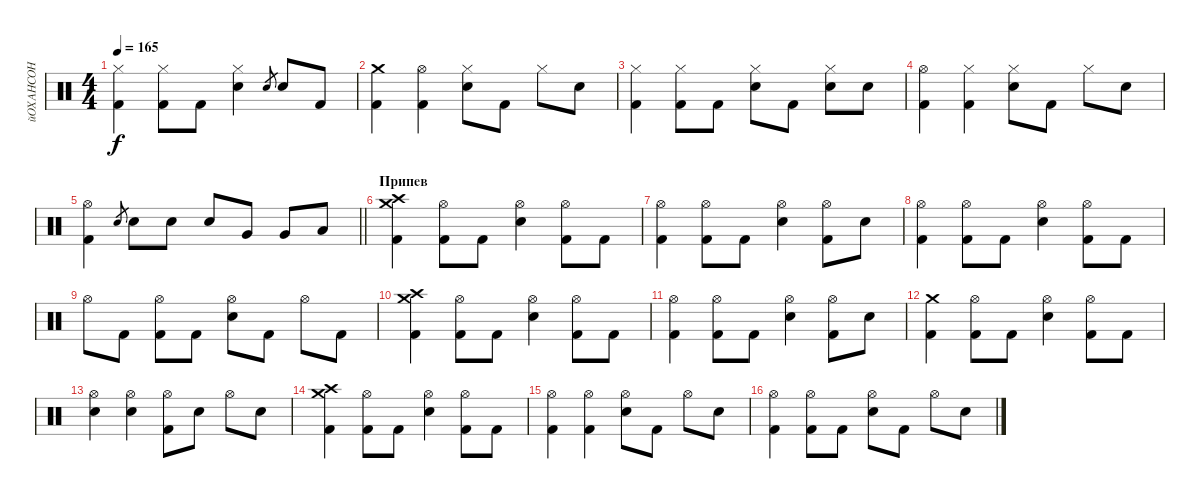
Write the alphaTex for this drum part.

\track ("йОХАНСОН" "йОХАНСОН") {instrument percussion}
\staff {score}
\articulation defaults
\ts (4 4)
\tempo 165
\clef neutral
\ks c
("Hi-Hat (closed)" "Kick (hit) 2").4{dy f} ("Hi-Hat (closed)" "Kick (hit) 2").8 "Kick (hit) 2".8 ("Hi-Hat (closed)" "Snare (hit) 2").4 "Snare (hit) 2".8{gr} "Snare (hit) 2".8 "Kick (hit) 2".8 |
("Crash medium (hit)" "Kick (hit) 2").4 ("Hi-Hat (open)" "Kick (hit) 2").4 ("Hi-Hat (closed)" "Snare (hit) 2").8 "Kick (hit) 2".8 "Hi-Hat (closed)".8 "Snare (hit) 2".8 |
("Hi-Hat (closed)" "Kick (hit) 2").4 ("Hi-Hat (closed)" "Kick (hit) 2").8 "Kick (hit) 2".8 ("Hi-Hat (closed)" "Snare (hit) 2").8 "Kick (hit) 2".8 ("Hi-Hat (closed)" "Snare (hit) 2").8 "Snare (hit) 2".8 |
("Hi-Hat (open)" "Kick (hit) 2").4 ("Hi-Hat (closed)" "Kick (hit) 2").4 ("Hi-Hat (closed)" "Snare (hit) 2").8 "Kick (hit) 2".8 "Hi-Hat (closed)".8 "Snare (hit) 2".8 |
\barLineRight lightlight
("Hi-Hat (open)" "Kick (hit) 2").4 "Snare (hit) 2".8{gr} "Snare (hit) 2".8 "Snare (hit) 2".8 "Snare (hit) 2".8 "Very Low Tom (hit)".8 "Very Low Tom (hit)".8 "Low Tom (hit)".8 |
\section ("" "Припев")
("Crash high (hit)" "Crash medium (hit)" "Kick (hit) 2").4 ("Hi-Hat (open)" "Kick (hit) 2").8 "Kick (hit) 2".8 ("Hi-Hat (open)" "Snare (hit) 2").4 ("Hi-Hat (open)" "Kick (hit) 2").8 "Kick (hit) 2".8 |
("Hi-Hat (open)" "Kick (hit) 2").4 ("Hi-Hat (open)" "Kick (hit) 2").8 "Kick (hit) 2".8 ("Hi-Hat (open)" "Snare (hit) 2").4 ("Hi-Hat (open)" "Kick (hit) 2").8 "Snare (hit) 2".8 |
("Hi-Hat (open)" "Kick (hit) 2").4 ("Hi-Hat (open)" "Kick (hit) 2").8 "Kick (hit) 2".8 ("Hi-Hat (open)" "Snare (hit) 2").4 ("Hi-Hat (open)" "Kick (hit) 2").8 "Kick (hit) 2".8 |
"Hi-Hat (open)".8 "Kick (hit) 2".8 ("Hi-Hat (open)" "Kick (hit) 2").8 "Kick (hit) 2".8 ("Hi-Hat (open)" "Snare (hit) 2").8 "Kick (hit) 2".8 "Hi-Hat (open)".8 "Kick (hit) 2".8 |
("Crash high (hit)" "Crash medium (hit)" "Kick (hit) 2").4 ("Hi-Hat (open)" "Kick (hit) 2").8 "Kick (hit) 2".8 ("Hi-Hat (open)" "Snare (hit) 2").4 ("Hi-Hat (open)" "Kick (hit) 2").8 "Kick (hit) 2".8 |
("Hi-Hat (open)" "Kick (hit) 2").4 ("Hi-Hat (open)" "Kick (hit) 2").8 "Kick (hit) 2".8 ("Hi-Hat (open)" "Snare (hit) 2").4 ("Hi-Hat (open)" "Kick (hit) 2").8 "Snare (hit) 2".8 |
("Crash medium (hit)" "Kick (hit) 2").4 ("Hi-Hat (open)" "Kick (hit) 2").8 "Kick (hit) 2".8 ("Hi-Hat (open)" "Snare (hit) 2").4 ("Hi-Hat (open)" "Kick (hit) 2").8 "Kick (hit) 2".8 |
("Hi-Hat (open)" "Snare (hit) 2").4 ("Hi-Hat (open)" "Snare (hit) 2").4 ("Hi-Hat (open)" "Kick (hit) 2").8 "Snare (hit) 2".8 "Hi-Hat (open)".8 "Snare (hit) 2".8 |
("Crash high (hit)" "Crash medium (hit)" "Kick (hit) 2").4 ("Hi-Hat (open)" "Kick (hit) 2").8 "Kick (hit) 2".8 ("Hi-Hat (open)" "Snare (hit) 2").4 ("Hi-Hat (open)" "Kick (hit) 2").8 "Kick (hit) 2".8 |
("Hi-Hat (open)" "Kick (hit) 2").4 ("Hi-Hat (open)" "Kick (hit) 2").4 ("Hi-Hat (open)" "Snare (hit) 2").8 "Kick (hit) 2".8 "Hi-Hat (open)".8 "Snare (hit) 2".8 |
("Hi-Hat (open)" "Kick (hit) 2").4 ("Hi-Hat (open)" "Kick (hit) 2").8 "Kick (hit) 2".8 ("Hi-Hat (open)" "Snare (hit) 2").8 "Kick (hit) 2".8 "Hi-Hat (open)".8 "Snare (hit) 2".8
